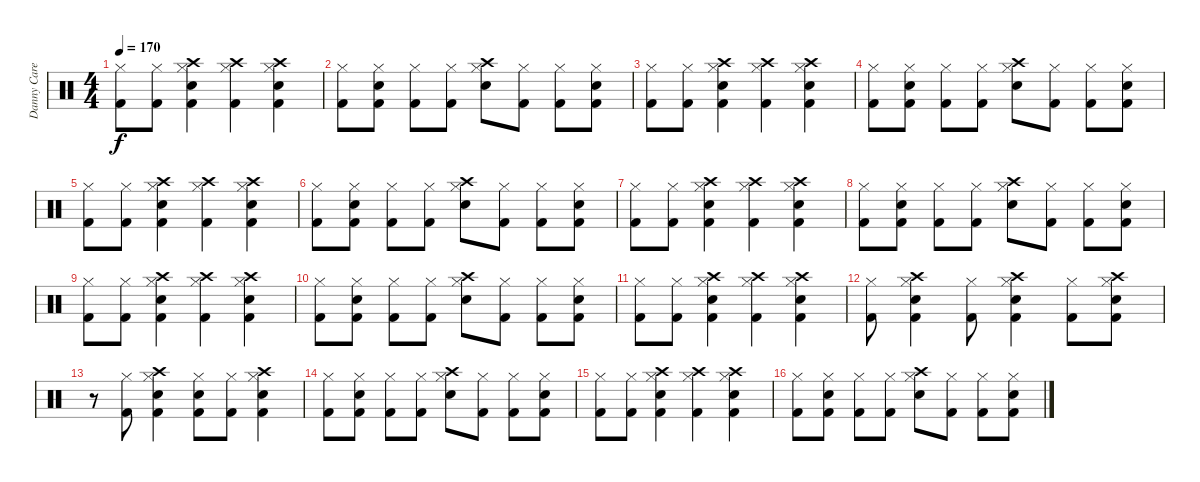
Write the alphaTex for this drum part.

\track ("Danny Carey" "Danny Care") {instrument percussion}
\staff {score}
\articulation defaults
\ts (4 4)
\tempo 170
\clef neutral
\ks c
("Hi-Hat (closed)" "Kick (hit) 2").8{dy f} ("Hi-Hat (closed)" "Kick (hit) 2").8 ("Crash high (hit)" "Hi-Hat (closed)" "Snare (hit) 2" "Kick (hit) 2").4 ("Crash high (hit)" "Hi-Hat (closed)" "Kick (hit) 2").4 ("Crash high (hit)" "Hi-Hat (closed)" "Snare (hit) 2" "Kick (hit) 2").4 |
("Hi-Hat (closed)" "Kick (hit) 2").8 ("Hi-Hat (closed)" "Snare (hit) 2" "Kick (hit) 2").8 ("Hi-Hat (closed)" "Kick (hit) 2").8 ("Hi-Hat (closed)" "Kick (hit) 2").8 ("Crash high (hit)" "Hi-Hat (closed)" "Snare (hit) 2").8 ("Hi-Hat (closed)" "Kick (hit) 2").8 ("Hi-Hat (closed)" "Kick (hit) 2").8 ("Hi-Hat (closed)" "Snare (hit) 2" "Kick (hit) 2").8 |
("Hi-Hat (closed)" "Kick (hit) 2").8 ("Hi-Hat (closed)" "Kick (hit) 2").8 ("Crash high (hit)" "Hi-Hat (closed)" "Snare (hit) 2" "Kick (hit) 2").4 ("Crash high (hit)" "Hi-Hat (closed)" "Kick (hit) 2").4 ("Crash high (hit)" "Hi-Hat (closed)" "Snare (hit) 2" "Kick (hit) 2").4 |
("Hi-Hat (closed)" "Kick (hit) 2").8 ("Hi-Hat (closed)" "Snare (hit) 2" "Kick (hit) 2").8 ("Hi-Hat (closed)" "Kick (hit) 2").8 ("Hi-Hat (closed)" "Kick (hit) 2").8 ("Crash high (hit)" "Hi-Hat (closed)" "Snare (hit) 2").8 ("Hi-Hat (closed)" "Kick (hit) 2").8 ("Hi-Hat (closed)" "Kick (hit) 2").8 ("Hi-Hat (closed)" "Snare (hit) 2" "Kick (hit) 2").8 |
("Hi-Hat (closed)" "Kick (hit) 2").8 ("Hi-Hat (closed)" "Kick (hit) 2").8 ("Crash high (hit)" "Hi-Hat (closed)" "Snare (hit) 2" "Kick (hit) 2").4 ("Crash high (hit)" "Hi-Hat (closed)" "Kick (hit) 2").4 ("Crash high (hit)" "Hi-Hat (closed)" "Snare (hit) 2" "Kick (hit) 2").4 |
("Hi-Hat (closed)" "Kick (hit) 2").8 ("Hi-Hat (closed)" "Snare (hit) 2" "Kick (hit) 2").8 ("Hi-Hat (closed)" "Kick (hit) 2").8 ("Hi-Hat (closed)" "Kick (hit) 2").8 ("Crash high (hit)" "Hi-Hat (closed)" "Snare (hit) 2").8 ("Hi-Hat (closed)" "Kick (hit) 2").8 ("Hi-Hat (closed)" "Kick (hit) 2").8 ("Hi-Hat (closed)" "Snare (hit) 2" "Kick (hit) 2").8 |
("Hi-Hat (closed)" "Kick (hit) 2").8 ("Hi-Hat (closed)" "Kick (hit) 2").8 ("Crash high (hit)" "Hi-Hat (closed)" "Snare (hit) 2" "Kick (hit) 2").4 ("Crash high (hit)" "Hi-Hat (closed)" "Kick (hit) 2").4 ("Crash high (hit)" "Hi-Hat (closed)" "Snare (hit) 2" "Kick (hit) 2").4 |
("Hi-Hat (closed)" "Kick (hit) 2").8 ("Hi-Hat (closed)" "Snare (hit) 2" "Kick (hit) 2").8 ("Hi-Hat (closed)" "Kick (hit) 2").8 ("Hi-Hat (closed)" "Kick (hit) 2").8 ("Crash high (hit)" "Hi-Hat (closed)" "Snare (hit) 2").8 ("Hi-Hat (closed)" "Kick (hit) 2").8 ("Hi-Hat (closed)" "Kick (hit) 2").8 ("Hi-Hat (closed)" "Snare (hit) 2" "Kick (hit) 2").8 |
("Hi-Hat (closed)" "Kick (hit) 2").8 ("Hi-Hat (closed)" "Kick (hit) 2").8 ("Crash high (hit)" "Hi-Hat (closed)" "Snare (hit) 2" "Kick (hit) 2").4 ("Crash high (hit)" "Hi-Hat (closed)" "Kick (hit) 2").4 ("Crash high (hit)" "Hi-Hat (closed)" "Snare (hit) 2" "Kick (hit) 2").4 |
("Hi-Hat (closed)" "Kick (hit) 2").8 ("Hi-Hat (closed)" "Snare (hit) 2" "Kick (hit) 2").8 ("Hi-Hat (closed)" "Kick (hit) 2").8 ("Hi-Hat (closed)" "Kick (hit) 2").8 ("Crash high (hit)" "Hi-Hat (closed)" "Snare (hit) 2").8 ("Hi-Hat (closed)" "Kick (hit) 2").8 ("Hi-Hat (closed)" "Kick (hit) 2").8 ("Hi-Hat (closed)" "Snare (hit) 2" "Kick (hit) 2").8 |
("Hi-Hat (closed)" "Kick (hit) 2").8 ("Hi-Hat (closed)" "Kick (hit) 2").8 ("Crash high (hit)" "Hi-Hat (closed)" "Snare (hit) 2" "Kick (hit) 2").4 ("Crash high (hit)" "Hi-Hat (closed)" "Kick (hit) 2").4 ("Crash high (hit)" "Hi-Hat (closed)" "Snare (hit) 2" "Kick (hit) 2").4 |
("Hi-Hat (closed)" "Kick (hit) 2").8 ("Crash high (hit)" "Hi-Hat (closed)" "Snare (hit) 2" "Kick (hit) 2").4 ("Hi-Hat (closed)" "Kick (hit) 2").8 ("Crash high (hit)" "Hi-Hat (closed)" "Snare (hit) 2" "Kick (hit) 2").4 ("Hi-Hat (closed)" "Kick (hit) 2").8 ("Crash high (hit)" "Hi-Hat (closed)" "Snare (hit) 2" "Kick (hit) 2").8 |
r.8 ("Hi-Hat (closed)" "Kick (hit) 2").8 ("Crash high (hit)" "Hi-Hat (closed)" "Snare (hit) 2" "Kick (hit) 2").4 ("Hi-Hat (closed)" "Snare (hit) 2" "Kick (hit) 2").8 ("Hi-Hat (closed)" "Kick (hit) 2").8 ("Crash high (hit)" "Hi-Hat (closed)" "Snare (hit) 2" "Kick (hit) 2").4 |
("Hi-Hat (closed)" "Kick (hit) 2").8 ("Hi-Hat (closed)" "Snare (hit) 2" "Kick (hit) 2").8 ("Hi-Hat (closed)" "Kick (hit) 2").8 ("Hi-Hat (closed)" "Kick (hit) 2").8 ("Crash high (hit)" "Hi-Hat (closed)" "Snare (hit) 2").8 ("Hi-Hat (closed)" "Kick (hit) 2").8 ("Hi-Hat (closed)" "Kick (hit) 2").8 ("Hi-Hat (closed)" "Snare (hit) 2" "Kick (hit) 2").8 |
("Hi-Hat (closed)" "Kick (hit) 2").8 ("Hi-Hat (closed)" "Kick (hit) 2").8 ("Crash high (hit)" "Hi-Hat (closed)" "Snare (hit) 2" "Kick (hit) 2").4 ("Crash high (hit)" "Hi-Hat (closed)" "Kick (hit) 2").4 ("Crash high (hit)" "Hi-Hat (closed)" "Snare (hit) 2" "Kick (hit) 2").4 |
("Hi-Hat (closed)" "Kick (hit) 2").8 ("Hi-Hat (closed)" "Snare (hit) 2" "Kick (hit) 2").8 ("Hi-Hat (closed)" "Kick (hit) 2").8 ("Hi-Hat (closed)" "Kick (hit) 2").8 ("Crash high (hit)" "Hi-Hat (closed)" "Snare (hit) 2").8 ("Hi-Hat (closed)" "Kick (hit) 2").8 ("Hi-Hat (closed)" "Kick (hit) 2").8 ("Hi-Hat (closed)" "Snare (hit) 2" "Kick (hit) 2").8
